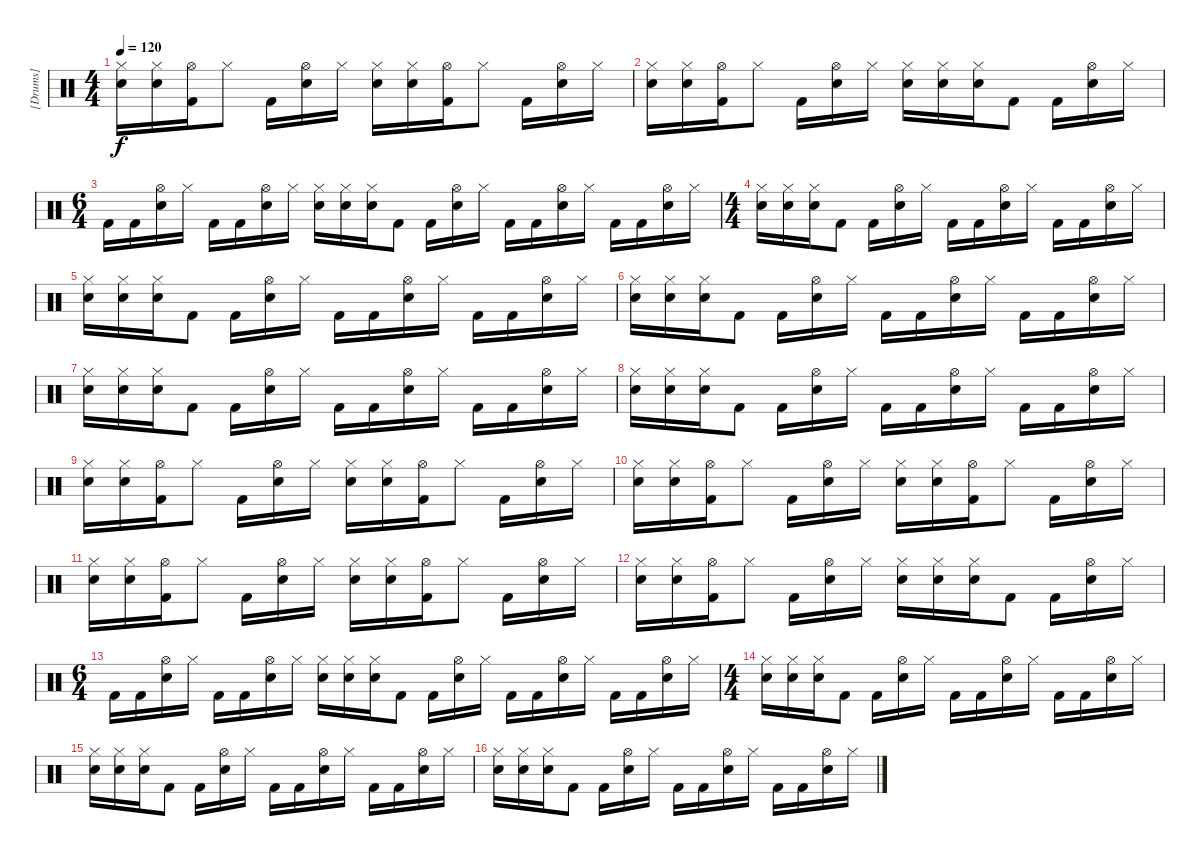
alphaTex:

\track ("[Drums]" "[Drums]") {instrument percussion}
\staff {score}
\articulation defaults
\ts (4 4)
\tempo 120
\clef neutral
\ks c
("Hi-Hat (closed)" "Electric Snare (hit)").16{dy f} ("Hi-Hat (closed)" "Electric Snare (hit)").16 ("Hi-Hat (open)" "Kick (hit) 2").16 "Hi-Hat (closed)".8 "Kick (hit) 2".16 ("Hi-Hat (open)" "Electric Snare (hit)").16 "Hi-Hat (closed)".16 ("Hi-Hat (closed)" "Electric Snare (hit)").16 ("Hi-Hat (closed)" "Electric Snare (hit)").16 ("Hi-Hat (open)" "Kick (hit) 2").16 "Hi-Hat (closed)".8 "Kick (hit) 2".16 ("Hi-Hat (open)" "Electric Snare (hit)").16 "Hi-Hat (closed)".16 |
("Hi-Hat (closed)" "Electric Snare (hit)").16 ("Hi-Hat (closed)" "Electric Snare (hit)").16 ("Hi-Hat (open)" "Kick (hit) 2").16 "Hi-Hat (closed)".8 "Kick (hit) 2".16 ("Hi-Hat (open)" "Electric Snare (hit)").16 "Hi-Hat (closed)".16 ("Hi-Hat (closed)" "Snare (hit) 2").16 ("Hi-Hat (closed)" "Snare (hit) 2").16 ("Hi-Hat (closed)" "Snare (hit) 2").16 "Kick (hit) 2".8 "Kick (hit) 2".16 ("Hi-Hat (open)" "Electric Snare (hit)").16 "Hi-Hat (closed)".16 |
\ts (6 4)
"Kick (hit) 2".16 "Kick (hit) 2".16 ("Hi-Hat (open)" "Electric Snare (hit)").16 "Hi-Hat (closed)".16 "Kick (hit) 2".16 "Kick (hit) 2".16 ("Hi-Hat (open)" "Electric Snare (hit)").16 "Hi-Hat (closed)".16 ("Hi-Hat (closed)" "Snare (hit) 2").16 ("Hi-Hat (closed)" "Snare (hit) 2").16 ("Hi-Hat (closed)" "Snare (hit) 2").16 "Kick (hit) 2".8 "Kick (hit) 2".16 ("Hi-Hat (open)" "Electric Snare (hit)").16 "Hi-Hat (closed)".16 "Kick (hit) 2".16 "Kick (hit) 2".16 ("Hi-Hat (open)" "Electric Snare (hit)").16 "Hi-Hat (closed)".16 "Kick (hit) 2".16 "Kick (hit) 2".16 ("Hi-Hat (open)" "Electric Snare (hit)").16 "Hi-Hat (closed)".16 |
\ts (4 4)
("Hi-Hat (closed)" "Snare (hit) 2").16 ("Hi-Hat (closed)" "Snare (hit) 2").16 ("Hi-Hat (closed)" "Snare (hit) 2").16 "Kick (hit) 2".8 "Kick (hit) 2".16 ("Hi-Hat (open)" "Electric Snare (hit)").16 "Hi-Hat (closed)".16 "Kick (hit) 2".16 "Kick (hit) 2".16 ("Hi-Hat (open)" "Electric Snare (hit)").16 "Hi-Hat (closed)".16 "Kick (hit) 2".16 "Kick (hit) 2".16 ("Hi-Hat (open)" "Electric Snare (hit)").16 "Hi-Hat (closed)".16 |
("Hi-Hat (closed)" "Snare (hit) 2").16 ("Hi-Hat (closed)" "Snare (hit) 2").16 ("Hi-Hat (closed)" "Snare (hit) 2").16 "Kick (hit) 2".8 "Kick (hit) 2".16 ("Hi-Hat (open)" "Electric Snare (hit)").16 "Hi-Hat (closed)".16 "Kick (hit) 2".16 "Kick (hit) 2".16 ("Hi-Hat (open)" "Electric Snare (hit)").16 "Hi-Hat (closed)".16 "Kick (hit) 2".16 "Kick (hit) 2".16 ("Hi-Hat (open)" "Electric Snare (hit)").16 "Hi-Hat (closed)".16 |
("Hi-Hat (closed)" "Snare (hit) 2").16 ("Hi-Hat (closed)" "Snare (hit) 2").16 ("Hi-Hat (closed)" "Snare (hit) 2").16 "Kick (hit) 2".8 "Kick (hit) 2".16 ("Hi-Hat (open)" "Electric Snare (hit)").16 "Hi-Hat (closed)".16 "Kick (hit) 2".16 "Kick (hit) 2".16 ("Hi-Hat (open)" "Electric Snare (hit)").16 "Hi-Hat (closed)".16 "Kick (hit) 2".16 "Kick (hit) 2".16 ("Hi-Hat (open)" "Electric Snare (hit)").16 "Hi-Hat (closed)".16 |
("Hi-Hat (closed)" "Snare (hit) 2").16 ("Hi-Hat (closed)" "Snare (hit) 2").16 ("Hi-Hat (closed)" "Snare (hit) 2").16 "Kick (hit) 2".8 "Kick (hit) 2".16 ("Hi-Hat (open)" "Electric Snare (hit)").16 "Hi-Hat (closed)".16 "Kick (hit) 2".16 "Kick (hit) 2".16 ("Hi-Hat (open)" "Electric Snare (hit)").16 "Hi-Hat (closed)".16 "Kick (hit) 2".16 "Kick (hit) 2".16 ("Hi-Hat (open)" "Electric Snare (hit)").16 "Hi-Hat (closed)".16 |
("Hi-Hat (closed)" "Snare (hit) 2").16 ("Hi-Hat (closed)" "Snare (hit) 2").16 ("Hi-Hat (closed)" "Snare (hit) 2").16 "Kick (hit) 2".8 "Kick (hit) 2".16 ("Hi-Hat (open)" "Electric Snare (hit)").16 "Hi-Hat (closed)".16 "Kick (hit) 2".16 "Kick (hit) 2".16 ("Hi-Hat (open)" "Electric Snare (hit)").16 "Hi-Hat (closed)".16 "Kick (hit) 2".16 "Kick (hit) 2".16 ("Hi-Hat (open)" "Electric Snare (hit)").16 "Hi-Hat (closed)".16 |
("Hi-Hat (closed)" "Electric Snare (hit)").16 ("Hi-Hat (closed)" "Electric Snare (hit)").16 ("Hi-Hat (open)" "Kick (hit) 2").16 "Hi-Hat (closed)".8 "Kick (hit) 2".16 ("Hi-Hat (open)" "Electric Snare (hit)").16 "Hi-Hat (closed)".16 ("Hi-Hat (closed)" "Electric Snare (hit)").16 ("Hi-Hat (closed)" "Electric Snare (hit)").16 ("Hi-Hat (open)" "Kick (hit) 2").16 "Hi-Hat (closed)".8 "Kick (hit) 2".16 ("Hi-Hat (open)" "Electric Snare (hit)").16 "Hi-Hat (closed)".16 |
("Hi-Hat (closed)" "Electric Snare (hit)").16 ("Hi-Hat (closed)" "Electric Snare (hit)").16 ("Hi-Hat (open)" "Kick (hit) 2").16 "Hi-Hat (closed)".8 "Kick (hit) 2".16 ("Hi-Hat (open)" "Electric Snare (hit)").16 "Hi-Hat (closed)".16 ("Hi-Hat (closed)" "Electric Snare (hit)").16 ("Hi-Hat (closed)" "Electric Snare (hit)").16 ("Hi-Hat (open)" "Kick (hit) 2").16 "Hi-Hat (closed)".8 "Kick (hit) 2".16 ("Hi-Hat (open)" "Electric Snare (hit)").16 "Hi-Hat (closed)".16 |
("Hi-Hat (closed)" "Electric Snare (hit)").16 ("Hi-Hat (closed)" "Electric Snare (hit)").16 ("Hi-Hat (open)" "Kick (hit) 2").16 "Hi-Hat (closed)".8 "Kick (hit) 2".16 ("Hi-Hat (open)" "Electric Snare (hit)").16 "Hi-Hat (closed)".16 ("Hi-Hat (closed)" "Electric Snare (hit)").16 ("Hi-Hat (closed)" "Electric Snare (hit)").16 ("Hi-Hat (open)" "Kick (hit) 2").16 "Hi-Hat (closed)".8 "Kick (hit) 2".16 ("Hi-Hat (open)" "Electric Snare (hit)").16 "Hi-Hat (closed)".16 |
("Hi-Hat (closed)" "Electric Snare (hit)").16 ("Hi-Hat (closed)" "Electric Snare (hit)").16 ("Hi-Hat (open)" "Kick (hit) 2").16 "Hi-Hat (closed)".8 "Kick (hit) 2".16 ("Hi-Hat (open)" "Electric Snare (hit)").16 "Hi-Hat (closed)".16 ("Hi-Hat (closed)" "Snare (hit) 2").16 ("Hi-Hat (closed)" "Snare (hit) 2").16 ("Hi-Hat (closed)" "Snare (hit) 2").16 "Kick (hit) 2".8 "Kick (hit) 2".16 ("Hi-Hat (open)" "Electric Snare (hit)").16 "Hi-Hat (closed)".16 |
\ts (6 4)
"Kick (hit) 2".16 "Kick (hit) 2".16 ("Hi-Hat (open)" "Electric Snare (hit)").16 "Hi-Hat (closed)".16 "Kick (hit) 2".16 "Kick (hit) 2".16 ("Hi-Hat (open)" "Electric Snare (hit)").16 "Hi-Hat (closed)".16 ("Hi-Hat (closed)" "Snare (hit) 2").16 ("Hi-Hat (closed)" "Snare (hit) 2").16 ("Hi-Hat (closed)" "Snare (hit) 2").16 "Kick (hit) 2".8 "Kick (hit) 2".16 ("Hi-Hat (open)" "Electric Snare (hit)").16 "Hi-Hat (closed)".16 "Kick (hit) 2".16 "Kick (hit) 2".16 ("Hi-Hat (open)" "Electric Snare (hit)").16 "Hi-Hat (closed)".16 "Kick (hit) 2".16 "Kick (hit) 2".16 ("Hi-Hat (open)" "Electric Snare (hit)").16 "Hi-Hat (closed)".16 |
\ts (4 4)
("Hi-Hat (closed)" "Snare (hit) 2").16 ("Hi-Hat (closed)" "Snare (hit) 2").16 ("Hi-Hat (closed)" "Snare (hit) 2").16 "Kick (hit) 2".8 "Kick (hit) 2".16 ("Hi-Hat (open)" "Electric Snare (hit)").16 "Hi-Hat (closed)".16 "Kick (hit) 2".16 "Kick (hit) 2".16 ("Hi-Hat (open)" "Electric Snare (hit)").16 "Hi-Hat (closed)".16 "Kick (hit) 2".16 "Kick (hit) 2".16 ("Hi-Hat (open)" "Electric Snare (hit)").16 "Hi-Hat (closed)".16 |
("Hi-Hat (closed)" "Snare (hit) 2").16 ("Hi-Hat (closed)" "Snare (hit) 2").16 ("Hi-Hat (closed)" "Snare (hit) 2").16 "Kick (hit) 2".8 "Kick (hit) 2".16 ("Hi-Hat (open)" "Electric Snare (hit)").16 "Hi-Hat (closed)".16 "Kick (hit) 2".16 "Kick (hit) 2".16 ("Hi-Hat (open)" "Electric Snare (hit)").16 "Hi-Hat (closed)".16 "Kick (hit) 2".16 "Kick (hit) 2".16 ("Hi-Hat (open)" "Electric Snare (hit)").16 "Hi-Hat (closed)".16 |
("Hi-Hat (closed)" "Snare (hit) 2").16 ("Hi-Hat (closed)" "Snare (hit) 2").16 ("Hi-Hat (closed)" "Snare (hit) 2").16 "Kick (hit) 2".8 "Kick (hit) 2".16 ("Hi-Hat (open)" "Electric Snare (hit)").16 "Hi-Hat (closed)".16 "Kick (hit) 2".16 "Kick (hit) 2".16 ("Hi-Hat (open)" "Electric Snare (hit)").16 "Hi-Hat (closed)".16 "Kick (hit) 2".16 "Kick (hit) 2".16 ("Hi-Hat (open)" "Electric Snare (hit)").16 "Hi-Hat (closed)".16
